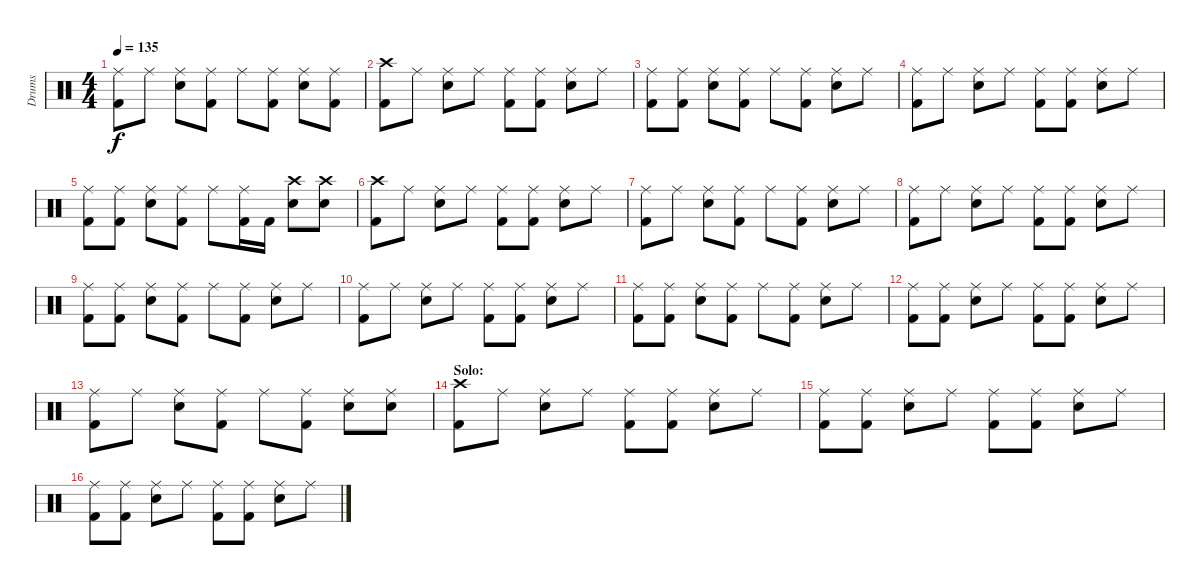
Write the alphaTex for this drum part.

\track ("Drums" "Drums") {instrument percussion}
\staff {score}
\articulation defaults
\ts (4 4)
\tempo 135
\clef neutral
\ks c
("Ride (middle)" "Kick (hit) 2").8{dy f} "Ride (middle)".8 ("Ride (middle)" "Electric Snare (hit)").8 ("Ride (middle)" "Kick (hit) 2").8 "Ride (middle)".8 ("Ride (middle)" "Kick (hit) 2").8 ("Ride (middle)" "Electric Snare (hit)").8 ("Ride (middle)" "Kick (hit) 2").8 |
("Crash high (hit)" "Kick (hit) 2").8 "Ride (middle)".8 ("Ride (middle)" "Electric Snare (hit)").8 "Ride (middle)".8 ("Ride (middle)" "Kick (hit) 2").8 ("Ride (middle)" "Kick (hit) 2").8 ("Ride (middle)" "Electric Snare (hit)").8 "Ride (middle)".8 |
("Ride (middle)" "Kick (hit) 2").8 ("Ride (middle)" "Kick (hit) 2").8 ("Ride (middle)" "Electric Snare (hit)").8 ("Ride (middle)" "Kick (hit) 2").8 "Ride (middle)".8 ("Ride (middle)" "Kick (hit) 2").8 ("Ride (middle)" "Electric Snare (hit)").8 "Ride (middle)".8 |
("Ride (middle)" "Kick (hit) 2").8 "Ride (middle)".8 ("Ride (middle)" "Electric Snare (hit)").8 "Ride (middle)".8 ("Ride (middle)" "Kick (hit) 2").8 ("Ride (middle)" "Kick (hit) 2").8 ("Ride (middle)" "Electric Snare (hit)").8 "Ride (middle)".8 |
("Ride (middle)" "Kick (hit) 2").8 ("Ride (middle)" "Kick (hit) 2").8 ("Ride (middle)" "Electric Snare (hit)").8 ("Ride (middle)" "Kick (hit) 2").8 "Ride (middle)".8 ("Ride (middle)" "Kick (hit) 2").16 "Kick (hit) 2".16 ("Crash high (hit)" "Electric Snare (hit)").8 ("Crash high (hit)" "Electric Snare (hit)").8 |
("Crash high (hit)" "Kick (hit) 2").8 "Ride (middle)".8 ("Ride (middle)" "Electric Snare (hit)").8 "Ride (middle)".8 ("Ride (middle)" "Kick (hit) 2").8 ("Ride (middle)" "Kick (hit) 2").8 ("Ride (middle)" "Electric Snare (hit)").8 "Ride (middle)".8 |
("Ride (middle)" "Kick (hit) 2").8 "Ride (middle)".8 ("Ride (middle)" "Electric Snare (hit)").8 ("Ride (middle)" "Kick (hit) 2").8 "Ride (middle)".8 ("Ride (middle)" "Kick (hit) 2").8 ("Ride (middle)" "Electric Snare (hit)").8 "Ride (middle)".8 |
("Ride (middle)" "Kick (hit) 2").8 "Ride (middle)".8 ("Ride (middle)" "Electric Snare (hit)").8 "Ride (middle)".8 ("Ride (middle)" "Kick (hit) 2").8 ("Ride (middle)" "Kick (hit) 2").8 ("Ride (middle)" "Electric Snare (hit)").8 "Ride (middle)".8 |
("Ride (middle)" "Kick (hit) 2").8 ("Ride (middle)" "Kick (hit) 2").8 ("Ride (middle)" "Electric Snare (hit)").8 ("Ride (middle)" "Kick (hit) 2").8 "Ride (middle)".8 ("Ride (middle)" "Kick (hit) 2").8 ("Ride (middle)" "Electric Snare (hit)").8 "Ride (middle)".8 |
("Ride (middle)" "Kick (hit) 2").8 "Ride (middle)".8 ("Ride (middle)" "Electric Snare (hit)").8 "Ride (middle)".8 ("Ride (middle)" "Kick (hit) 2").8 ("Ride (middle)" "Kick (hit) 2").8 ("Ride (middle)" "Electric Snare (hit)").8 "Ride (middle)".8 |
("Ride (middle)" "Kick (hit) 2").8 ("Ride (middle)" "Kick (hit) 2").8 ("Ride (middle)" "Electric Snare (hit)").8 ("Ride (middle)" "Kick (hit) 2").8 "Ride (middle)".8 ("Ride (middle)" "Kick (hit) 2").8 ("Ride (middle)" "Electric Snare (hit)").8 "Ride (middle)".8 |
("Ride (middle)" "Kick (hit) 2").8 ("Ride (middle)" "Kick (hit) 2").8 ("Ride (middle)" "Electric Snare (hit)").8 "Ride (middle)".8 ("Ride (middle)" "Kick (hit) 2").8 ("Ride (middle)" "Kick (hit) 2").8 ("Ride (middle)" "Electric Snare (hit)").8 "Ride (middle)".8 |
("Ride (middle)" "Kick (hit) 2").8 "Ride (middle)".8 ("Ride (middle)" "Electric Snare (hit)").8 ("Ride (middle)" "Kick (hit) 2").8 "Ride (middle)".8 ("Ride (middle)" "Kick (hit) 2").8 ("Ride (middle)" "Electric Snare (hit)").8 ("Ride (middle)" "Electric Snare (hit)").8 |
\section ("" "Solo:")
("Crash high (hit)" "Kick (hit) 2").8 "Ride (middle)".8 ("Ride (middle)" "Electric Snare (hit)").8 "Ride (middle)".8 ("Ride (middle)" "Kick (hit) 2").8 ("Ride (middle)" "Kick (hit) 2").8 ("Ride (middle)" "Electric Snare (hit)").8 "Ride (middle)".8 |
("Ride (middle)" "Kick (hit) 2").8 ("Ride (middle)" "Kick (hit) 2").8 ("Ride (middle)" "Electric Snare (hit)").8 "Ride (middle)".8 ("Ride (middle)" "Kick (hit) 2").8 ("Ride (middle)" "Kick (hit) 2").8 ("Ride (middle)" "Electric Snare (hit)").8 "Ride (middle)".8 |
("Ride (middle)" "Kick (hit) 2").8 ("Ride (middle)" "Kick (hit) 2").8 ("Ride (middle)" "Electric Snare (hit)").8 "Ride (middle)".8 ("Ride (middle)" "Kick (hit) 2").8 ("Ride (middle)" "Kick (hit) 2").8 ("Ride (middle)" "Electric Snare (hit)").8 "Ride (middle)".8
